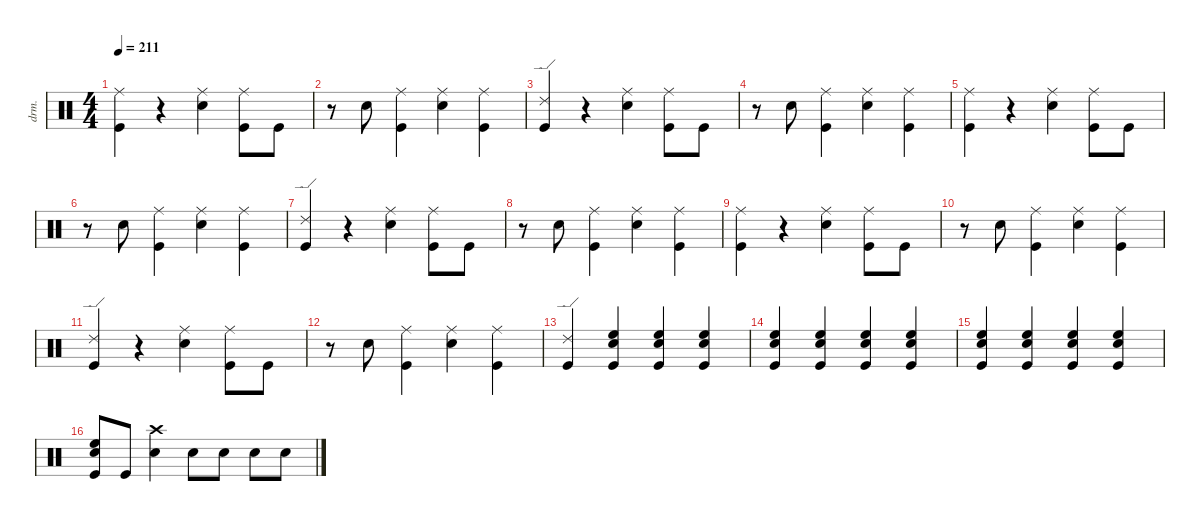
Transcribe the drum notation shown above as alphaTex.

\defaultSystemsLayout 4
\hideDynamics
\bracketExtendMode nobrackets
\track ("Drums" "drm.") {instrument percussion}
\staff {score}
\articulation defaults
\ts (4 4)
\tempo 211
\clef neutral
\ks c
("Kick (hit)" "Ride (middle)"{acc #}).4{dy fff} r.4 ("Snare (hit) 2" "Ride (middle)"{acc #}).4{dy ff} ("Kick (hit)" "Ride (middle)"{acc #}).8{dy f} "Kick (hit)".8{dy fff} |
r.8 "Snare (hit) 2".8{dy p} ("Kick (hit)" "Ride (middle)"{acc #}).4{dy ff} ("Snare (hit) 2" "Ride (middle)"{acc #}).4 ("Kick (hit)" "Ride (middle)"{acc #}).4{dy mf} |
("Kick (hit)" "Ride (edge) 2").4{dy fff} r.4 ("Snare (hit) 2" "Ride (middle)"{acc #}).4{dy ff} ("Kick (hit)" "Ride (middle)"{acc #}).8{dy f} "Kick (hit)".8{dy fff} |
r.8 "Snare (hit) 2".8{dy p} ("Kick (hit)" "Ride (middle)"{acc #}).4{dy ff} ("Snare (hit) 2" "Ride (middle)"{acc #}).4 ("Kick (hit)" "Ride (middle)"{acc #}).4{dy mf} |
("Kick (hit)" "Ride (middle)"{acc #}).4{dy fff} r.4 ("Snare (hit) 2" "Ride (middle)"{acc #}).4{dy ff} ("Kick (hit)" "Ride (middle)"{acc #}).8{dy f} "Kick (hit)".8{dy fff} |
r.8 "Snare (hit) 2".8{dy p} ("Kick (hit)" "Ride (middle)"{acc #}).4{dy ff} ("Snare (hit) 2" "Ride (middle)"{acc #}).4 ("Kick (hit)" "Ride (middle)"{acc #}).4{dy mf} |
("Kick (hit)" "Ride (edge) 2").4{dy fff} r.4 ("Snare (hit) 2" "Ride (middle)"{acc #}).4{dy ff} ("Kick (hit)" "Ride (middle)"{acc #}).8{dy f} "Kick (hit)".8{dy fff} |
r.8 "Snare (hit) 2".8{dy p} ("Kick (hit)" "Ride (middle)"{acc #}).4{dy ff} ("Snare (hit) 2" "Ride (middle)"{acc #}).4 ("Kick (hit)" "Ride (middle)"{acc #}).4{dy mf} |
("Kick (hit)" "Ride (middle)"{acc #}).4{dy fff} r.4 ("Snare (hit) 2" "Ride (middle)"{acc #}).4{dy ff} ("Kick (hit)" "Ride (middle)"{acc #}).8{dy f} "Kick (hit)".8{dy fff} |
r.8 "Snare (hit) 2".8{dy p} ("Kick (hit)" "Ride (middle)"{acc #}).4{dy ff} ("Snare (hit) 2" "Ride (middle)"{acc #}).4 ("Kick (hit)" "Ride (middle)"{acc #}).4{dy mf} |
("Kick (hit)" "Ride (edge) 2").4{dy fff} r.4 ("Snare (hit) 2" "Ride (middle)"{acc #}).4{dy ff} ("Kick (hit)" "Ride (middle)"{acc #}).8{dy f} "Kick (hit)".8{dy fff} |
r.8 "Snare (hit) 2".8{dy p} ("Kick (hit)" "Ride (middle)"{acc #}).4{dy ff} ("Snare (hit) 2" "Ride (middle)"{acc #}).4 ("Kick (hit)" "Ride (middle)"{acc #}).4{dy mf} |
("Kick (hit)" "Ride (edge) 2").4{dy fff} ("Snare (hit) 2" "Kick (hit)" "High Floor Tom (hit)").4{dy ff} ("Kick (hit)" "Snare (hit) 2" "High Floor Tom (hit)").4 ("Kick (hit)" "Snare (hit) 2" "High Floor Tom (hit)").4 |
("Snare (hit) 2" "Kick (hit)" "High Floor Tom (hit)").4 ("Kick (hit)" "Snare (hit) 2" "High Floor Tom (hit)").4 ("Kick (hit)" "Snare (hit) 2" "High Floor Tom (hit)").4 ("Snare (hit) 2" "Kick (hit)" "High Floor Tom (hit)").4 |
("Kick (hit)" "Snare (hit) 2" "High Floor Tom (hit)").4 ("Snare (hit) 2" "Kick (hit)" "High Floor Tom (hit)").4 ("Snare (hit) 2" "Kick (hit)" "High Floor Tom (hit)").4 ("Kick (hit)" "Snare (hit) 2" "High Floor Tom (hit)").4 |
("Kick (hit)" "Snare (hit) 2" "High Floor Tom (hit)").8{dy f} "Kick (hit)".8{dy ff} ("Snare (hit) 2" "Crash high (hit)"{acc #}).4{dy fff} "Snare (hit) 2".8 "Snare (hit) 2".8{dy f} "Snare (hit) 2".8{dy fff} "Snare (hit) 2".8{dy f}
